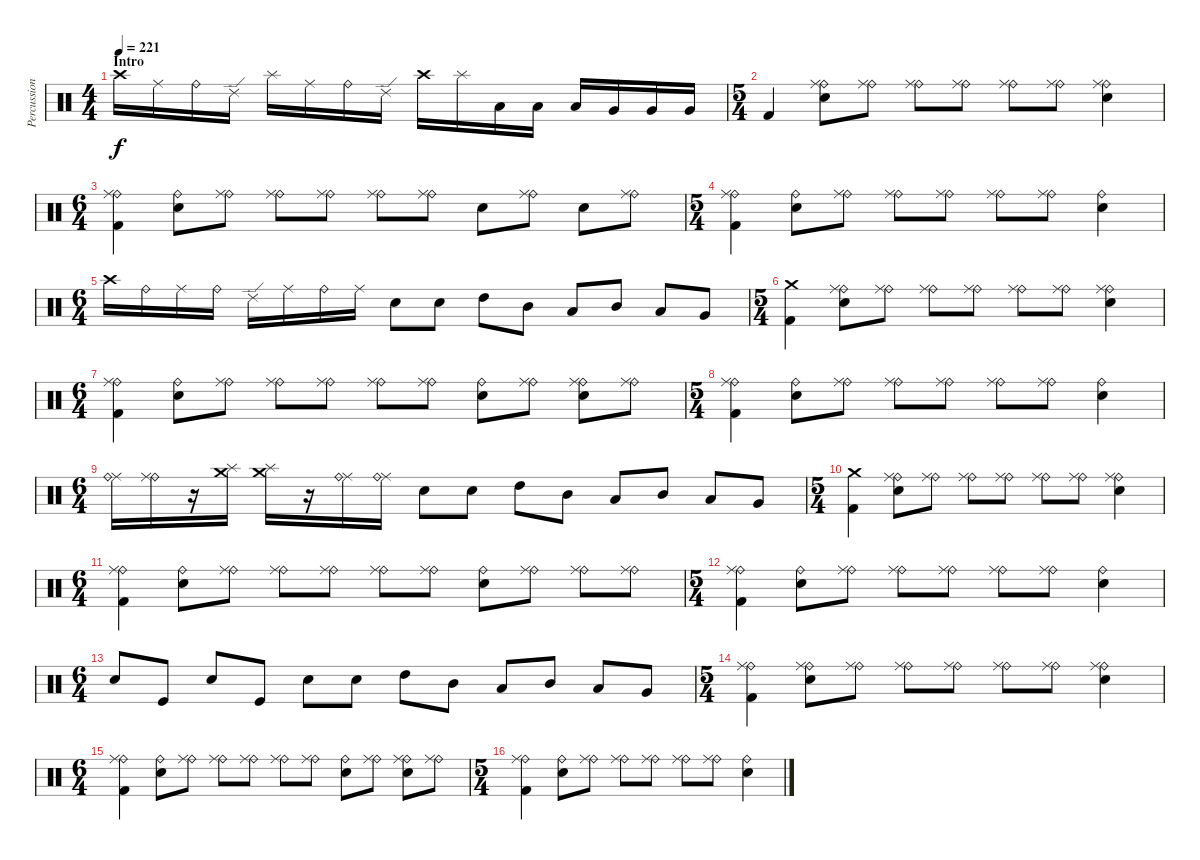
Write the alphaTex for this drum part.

\track ("Percussion" "Percussion") {instrument percussion}
\staff {score}
\articulation defaults
\ts (4 4)
\section ("" "Intro")
\tempo 221
\clef neutral
\ks c "Crash high (hit)".16{dy f} "Ride (middle)".16 "Ride (bell)".16 "Ride (edge) 2".16 "Splash (hit)".16 "Ride (middle)".16 "Ride (bell)".16 "Ride (edge) 2".16 "Crash high (hit)".16 "Splash (hit)".16 "Low Tom (hit)".16 "Low Tom (hit)".16 "Low Tom (hit)".16 "Very Low Tom (hit)".16 "Very Low Tom (hit)".16 "Very Low Tom (hit)".16
|
\ts (5 4)
"Kick (hit) 2".4 ("Ride (bell)" "Ride (middle)" "Electric Snare (hit)").8 ("Ride (bell)" "Ride (middle)").8 ("Ride (bell)" "Ride (middle)").8 ("Ride (bell)" "Ride (middle)").8 ("Ride (bell)" "Ride (middle)").8 ("Ride (bell)" "Ride (middle)").8 ("Ride (bell)" "Ride (middle)" "Electric Snare (hit)").4 |
\ts (6 4)
("Ride (bell)" "Ride (middle)" "Kick (hit) 2").4 ("Ride (bell)" "Electric Snare (hit)").8 ("Ride (bell)" "Ride (middle)").8 ("Ride (bell)" "Ride (middle)").8 ("Ride (bell)" "Ride (middle)").8 ("Ride (bell)" "Ride (middle)").8 ("Ride (bell)" "Ride (middle)").8 "Electric Snare (hit)".8 ("Ride (bell)" "Ride (middle)").8 "Electric Snare (hit)".8 ("Ride (bell)" "Ride (middle)").8 |
\ts (5 4)
("Ride (bell)" "Ride (middle)" "Kick (hit) 2").4 ("Ride (bell)" "Electric Snare (hit)").8 ("Ride (bell)" "Ride (middle)").8 ("Ride (bell)" "Ride (middle)").8 ("Ride (bell)" "Ride (middle)").8 ("Ride (bell)" "Ride (middle)").8 ("Ride (bell)" "Ride (middle)").8 ("Ride (bell)" "Electric Snare (hit)").4 |
\ts (6 4)
"Crash high (hit)".16 "Ride (bell)".16 "Ride (middle)".16 "Ride (bell)".16 "Ride (edge) 2".16 "Ride (middle)".16 "Ride (bell)".16 "Ride (middle)".16 "Electric Snare (hit)".8 "Electric Snare (hit)".8 "High Tom (hit)".8 "Mid Tom (hit)".8 "Low Tom (hit)".8 "Mid Tom (hit)".8 "Low Tom (hit)".8 "Very Low Tom (hit)".8 |
\ts (5 4)
("Crash medium (hit)" "Kick (hit) 2").4 ("Ride (bell)" "Ride (middle)" "Electric Snare (hit)").8 ("Ride (bell)" "Ride (middle)").8 ("Ride (bell)" "Ride (middle)").8 ("Ride (bell)" "Ride (middle)").8 ("Ride (bell)" "Ride (middle)").8 ("Ride (bell)" "Ride (middle)").8 ("Ride (bell)" "Ride (middle)" "Electric Snare (hit)").4 |
\ts (6 4)
("Ride (bell)" "Ride (middle)" "Kick (hit) 2").4 ("Ride (bell)" "Electric Snare (hit)").8 ("Ride (bell)" "Ride (middle)").8 ("Ride (bell)" "Ride (middle)").8 ("Ride (bell)" "Ride (middle)").8 ("Ride (bell)" "Ride (middle)").8 ("Ride (bell)" "Ride (middle)").8 ("Ride (bell)" "Electric Snare (hit)").8 ("Ride (bell)" "Ride (middle)").8 ("Ride (bell)" "Ride (middle)" "Electric Snare (hit)").8 ("Ride (bell)" "Ride (middle)").8 |
\ts (5 4)
("Ride (bell)" "Ride (middle)" "Kick (hit) 2").4 ("Ride (bell)" "Electric Snare (hit)").8 ("Ride (bell)" "Ride (middle)").8 ("Ride (bell)" "Ride (middle)").8 ("Ride (bell)" "Ride (middle)").8 ("Ride (bell)" "Ride (middle)").8 ("Ride (bell)" "Ride (middle)").8 ("Ride (bell)" "Electric Snare (hit)").4 |
\ts (6 4)
("Ride (middle)" "Ride (bell)").16 ("Ride (bell)" "Ride (middle)").16 r.16 ("Splash (hit)" "Crash medium (hit)").16 ("Splash (hit)" "Crash medium (hit)").16 r.16 ("Ride (middle)" "Ride (bell)").16 ("Ride (middle)" "Ride (bell)").16 "Electric Snare (hit)".8 "Electric Snare (hit)".8 "High Tom (hit)".8 "Mid Tom (hit)".8 "Low Tom (hit)".8 "Mid Tom (hit)".8 "Low Tom (hit)".8 "Very Low Tom (hit)".8 |
\ts (5 4)
("Crash medium (hit)" "Kick (hit) 2").4 ("Ride (bell)" "Ride (middle)" "Electric Snare (hit)").8 ("Ride (bell)" "Ride (middle)").8 ("Ride (bell)" "Ride (middle)").8 ("Ride (bell)" "Ride (middle)").8 ("Ride (bell)" "Ride (middle)").8 ("Ride (bell)" "Ride (middle)").8 ("Ride (bell)" "Ride (middle)" "Electric Snare (hit)").4 |
\ts (6 4)
("Ride (bell)" "Ride (middle)" "Kick (hit) 2").4 ("Ride (bell)" "Electric Snare (hit)").8 ("Ride (bell)" "Ride (middle)").8 ("Ride (bell)" "Ride (middle)").8 ("Ride (bell)" "Ride (middle)").8 ("Ride (bell)" "Ride (middle)").8 ("Ride (bell)" "Ride (middle)").8 ("Ride (bell)" "Electric Snare (hit)").8 ("Ride (bell)" "Ride (middle)").8 ("Ride (bell)" "Ride (middle)").8 ("Ride (bell)" "Ride (middle)").8 |
\ts (5 4)
("Ride (bell)" "Ride (middle)" "Kick (hit) 2").4 ("Ride (bell)" "Electric Snare (hit)").8 ("Ride (bell)" "Ride (middle)").8 ("Ride (bell)" "Ride (middle)").8 ("Ride (bell)" "Ride (middle)").8 ("Ride (bell)" "Ride (middle)").8 ("Ride (bell)" "Ride (middle)").8 ("Ride (bell)" "Electric Snare (hit)").4 |
\ts (6 4)
"Electric Snare (hit)".8 "Kick (hit)".8 "Electric Snare (hit)".8 "Kick (hit)".8 "Electric Snare (hit)".8 "Electric Snare (hit)".8 "High Tom (hit)".8 "Mid Tom (hit)".8 "Low Tom (hit)".8 "Mid Tom (hit)".8 "Low Tom (hit)".8 "Very Low Tom (hit)".8 |
\ts (5 4)
("Ride (bell)" "Ride (middle)" "Kick (hit) 2").4 ("Ride (bell)" "Ride (middle)" "Electric Snare (hit)").8 ("Ride (bell)" "Ride (middle)").8 ("Ride (bell)" "Ride (middle)").8 ("Ride (bell)" "Ride (middle)").8 ("Ride (bell)" "Ride (middle)").8 ("Ride (bell)" "Ride (middle)").8 ("Ride (bell)" "Ride (middle)" "Electric Snare (hit)").4 |
\ts (6 4)
("Ride (bell)" "Ride (middle)" "Kick (hit) 2").4 ("Ride (bell)" "Electric Snare (hit)").8 ("Ride (bell)" "Ride (middle)").8 ("Ride (bell)" "Ride (middle)").8 ("Ride (bell)" "Ride (middle)").8 ("Ride (bell)" "Ride (middle)").8 ("Ride (bell)" "Ride (middle)").8 ("Ride (bell)" "Electric Snare (hit)").8 ("Ride (bell)" "Ride (middle)").8 ("Ride (bell)" "Ride (middle)" "Electric Snare (hit)").8 ("Ride (bell)" "Ride (middle)").8 |
\ts (5 4)
("Ride (bell)" "Ride (middle)" "Kick (hit) 2").4 ("Ride (bell)" "Electric Snare (hit)").8 ("Ride (bell)" "Ride (middle)").8 ("Ride (bell)" "Ride (middle)").8 ("Ride (bell)" "Ride (middle)").8 ("Ride (bell)" "Ride (middle)").8 ("Ride (bell)" "Ride (middle)").8 ("Ride (bell)" "Electric Snare (hit)").4
